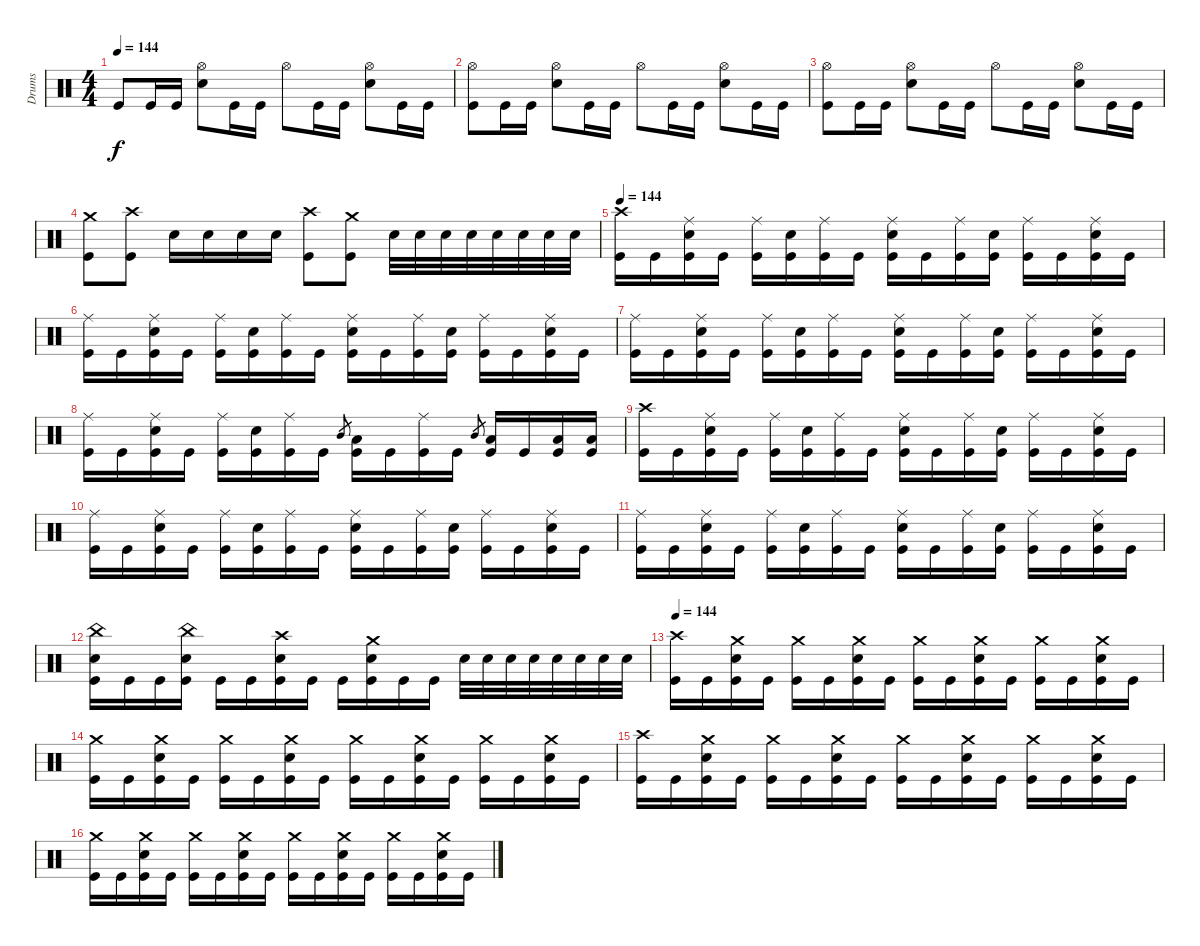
\track ("Drums" "Drums") {instrument percussion}
\staff {score}
\articulation defaults
\ts (4 4)
\tempo 144
\clef neutral
\ks c "Kick (hit)".8{dy f} "Kick (hit)".16 "Kick (hit)".16
("Hi-Hat (open)" "Electric Snare (hit)").8 "Kick (hit)".16 "Kick (hit)".16 "Hi-Hat (open)".8 "Kick (hit)".16 "Kick (hit)".16 ("Hi-Hat (open)" "Electric Snare (hit)").8 "Kick (hit)".16 "Kick (hit)".16 |
("Hi-Hat (open)" "Kick (hit)").8 "Kick (hit)".16 "Kick (hit)".16 ("Hi-Hat (open)" "Electric Snare (hit)").8 "Kick (hit)".16 "Kick (hit)".16 "Hi-Hat (open)".8 "Kick (hit)".16 "Kick (hit)".16 ("Hi-Hat (open)" "Electric Snare (hit)").8 "Kick (hit)".16 "Kick (hit)".16 |
("Hi-Hat (open)" "Kick (hit)").8 "Kick (hit)".16 "Kick (hit)".16 ("Hi-Hat (open)" "Electric Snare (hit)").8 "Kick (hit)".16 "Kick (hit)".16 "Hi-Hat (open)".8 "Kick (hit)".16 "Kick (hit)".16 ("Hi-Hat (open)" "Electric Snare (hit)").8 "Kick (hit)".16 "Kick (hit)".16 |
("Crash medium (hit)" "Kick (hit)").8 ("Crash high (hit)" "Kick (hit)").8 "Electric Snare (hit)".16 "Electric Snare (hit)".16 "Electric Snare (hit)".16 "Electric Snare (hit)".16 ("Crash high (hit)" "Kick (hit)").8 ("Crash medium (hit)" "Kick (hit)").8 "Electric Snare (hit)".32 "Electric Snare (hit)".32 "Electric Snare (hit)".32 "Electric Snare (hit)".32 "Electric Snare (hit)".32 "Electric Snare (hit)".32 "Electric Snare (hit)".32 "Electric Snare (hit)".32 |
\tempo 144
("Crash high (hit)" "Kick (hit)").16 "Kick (hit)".16 ("Ride (middle)" "Electric Snare (hit)" "Kick (hit)").16 "Kick (hit)".16 ("Ride (middle)" "Kick (hit)").16 ("Electric Snare (hit)" "Kick (hit)").16 ("Ride (middle)" "Kick (hit)").16 "Kick (hit)".16 ("Ride (middle)" "Electric Snare (hit)" "Kick (hit)").16 "Kick (hit)".16 ("Ride (middle)" "Kick (hit)").16 ("Electric Snare (hit)" "Kick (hit)").16 ("Ride (middle)" "Kick (hit)").16 "Kick (hit)".16 ("Ride (middle)" "Electric Snare (hit)" "Kick (hit)").16 "Kick (hit)".16 |
("Ride (middle)" "Kick (hit)").16 "Kick (hit)".16 ("Ride (middle)" "Electric Snare (hit)" "Kick (hit)").16 "Kick (hit)".16 ("Ride (middle)" "Kick (hit)").16 ("Electric Snare (hit)" "Kick (hit)").16 ("Ride (middle)" "Kick (hit)").16 "Kick (hit)".16 ("Ride (middle)" "Electric Snare (hit)" "Kick (hit)").16 "Kick (hit)".16 ("Ride (middle)" "Kick (hit)").16 ("Electric Snare (hit)" "Kick (hit)").16 ("Ride (middle)" "Kick (hit)").16 "Kick (hit)".16 ("Ride (middle)" "Electric Snare (hit)" "Kick (hit)").16 "Kick (hit)".16 |
("Ride (middle)" "Kick (hit)").16 "Kick (hit)".16 ("Ride (middle)" "Electric Snare (hit)" "Kick (hit)").16 "Kick (hit)".16 ("Ride (middle)" "Kick (hit)").16 ("Electric Snare (hit)" "Kick (hit)").16 ("Ride (middle)" "Kick (hit)").16 "Kick (hit)".16 ("Ride (middle)" "Electric Snare (hit)" "Kick (hit)").16 "Kick (hit)".16 ("Ride (middle)" "Kick (hit)").16 ("Electric Snare (hit)" "Kick (hit)").16 ("Ride (middle)" "Kick (hit)").16 "Kick (hit)".16 ("Ride (middle)" "Electric Snare (hit)" "Kick (hit)").16 "Kick (hit)".16 |
("Ride (middle)" "Kick (hit)").16 "Kick (hit)".16 ("Ride (middle)" "Electric Snare (hit)" "Kick (hit)").16 "Kick (hit)".16 ("Ride (middle)" "Kick (hit)").16 ("Electric Snare (hit)" "Kick (hit)").16 ("Ride (middle)" "Kick (hit)").16 "Kick (hit)".16 "Mid Tom (hit)".8{gr} ("Low Tom (hit)" "Kick (hit)").16 "Kick (hit)".16 ("Ride (middle)" "Kick (hit)").16 "Kick (hit)".16 "Mid Tom (hit)".8{gr} ("Low Tom (hit)" "Kick (hit)").16 "Kick (hit)".16 ("Low Tom (hit)" "Kick (hit)").16 ("Low Tom (hit)" "Kick (hit)").16 |
("Crash high (hit)" "Kick (hit)").16 "Kick (hit)".16 ("Ride (middle)" "Electric Snare (hit)" "Kick (hit)").16 "Kick (hit)".16 ("Ride (middle)" "Kick (hit)").16 ("Electric Snare (hit)" "Kick (hit)").16 ("Ride (middle)" "Kick (hit)").16 "Kick (hit)".16 ("Ride (middle)" "Electric Snare (hit)" "Kick (hit)").16 "Kick (hit)".16 ("Ride (middle)" "Kick (hit)").16 ("Electric Snare (hit)" "Kick (hit)").16 ("Ride (middle)" "Kick (hit)").16 "Kick (hit)".16 ("Ride (middle)" "Electric Snare (hit)" "Kick (hit)").16 "Kick (hit)".16 |
("Ride (middle)" "Kick (hit)").16 "Kick (hit)".16 ("Ride (middle)" "Electric Snare (hit)" "Kick (hit)").16 "Kick (hit)".16 ("Ride (middle)" "Kick (hit)").16 ("Electric Snare (hit)" "Kick (hit)").16 ("Ride (middle)" "Kick (hit)").16 "Kick (hit)".16 ("Ride (middle)" "Electric Snare (hit)" "Kick (hit)").16 "Kick (hit)".16 ("Ride (middle)" "Kick (hit)").16 ("Electric Snare (hit)" "Kick (hit)").16 ("Ride (middle)" "Kick (hit)").16 "Kick (hit)".16 ("Ride (middle)" "Electric Snare (hit)" "Kick (hit)").16 "Kick (hit)".16 |
("Ride (middle)" "Kick (hit)").16 "Kick (hit)".16 ("Ride (middle)" "Electric Snare (hit)" "Kick (hit)").16 "Kick (hit)".16 ("Ride (middle)" "Kick (hit)").16 ("Electric Snare (hit)" "Kick (hit)").16 ("Ride (middle)" "Kick (hit)").16 "Kick (hit)".16 ("Ride (middle)" "Electric Snare (hit)" "Kick (hit)").16 "Kick (hit)".16 ("Ride (middle)" "Kick (hit)").16 ("Electric Snare (hit)" "Kick (hit)").16 ("Ride (middle)" "Kick (hit)").16 "Kick (hit)".16 ("Ride (middle)" "Electric Snare (hit)" "Kick (hit)").16 "Kick (hit)".16 |
("China (hit)" "Electric Snare (hit)" "Kick (hit)").16 "Kick (hit)".16 "Kick (hit)".16 ("China (hit)" "Electric Snare (hit)" "Kick (hit)").16 "Kick (hit)".16 "Kick (hit)".16 ("Crash high (hit)" "Electric Snare (hit)" "Kick (hit)").16 "Kick (hit)".16 "Kick (hit)".16 ("Crash medium (hit)" "Electric Snare (hit)" "Kick (hit)").16 "Kick (hit)".16 "Kick (hit)".16 "Electric Snare (hit)".32 "Electric Snare (hit)".32 "Electric Snare (hit)".32 "Electric Snare (hit)".32 "Electric Snare (hit)".32 "Electric Snare (hit)".32 "Electric Snare (hit)".32 "Electric Snare (hit)".32 |
\tempo 144
("Crash high (hit)" "Kick (hit)").16 "Kick (hit)".16 ("Crash medium (hit)" "Electric Snare (hit)" "Kick (hit)").16 "Kick (hit)".16 ("Crash medium (hit)" "Kick (hit)").16 "Kick (hit)".16 ("Crash medium (hit)" "Electric Snare (hit)" "Kick (hit)").16 "Kick (hit)".16 ("Crash medium (hit)" "Kick (hit)").16 "Kick (hit)".16 ("Crash medium (hit)" "Electric Snare (hit)" "Kick (hit)").16 "Kick (hit)".16 ("Crash medium (hit)" "Kick (hit)").16 "Kick (hit)".16 ("Crash medium (hit)" "Electric Snare (hit)" "Kick (hit)").16 "Kick (hit)".16 |
("Crash medium (hit)" "Kick (hit)").16 "Kick (hit)".16 ("Crash medium (hit)" "Electric Snare (hit)" "Kick (hit)").16 "Kick (hit)".16 ("Crash medium (hit)" "Kick (hit)").16 "Kick (hit)".16 ("Crash medium (hit)" "Electric Snare (hit)" "Kick (hit)").16 "Kick (hit)".16 ("Crash medium (hit)" "Kick (hit)").16 "Kick (hit)".16 ("Crash medium (hit)" "Electric Snare (hit)" "Kick (hit)").16 "Kick (hit)".16 ("Crash medium (hit)" "Kick (hit)").16 "Kick (hit)".16 ("Crash medium (hit)" "Electric Snare (hit)" "Kick (hit)").16 "Kick (hit)".16 |
("Crash high (hit)" "Kick (hit)").16 "Kick (hit)".16 ("Crash medium (hit)" "Electric Snare (hit)" "Kick (hit)").16 "Kick (hit)".16 ("Crash medium (hit)" "Kick (hit)").16 "Kick (hit)".16 ("Crash medium (hit)" "Electric Snare (hit)" "Kick (hit)").16 "Kick (hit)".16 ("Crash medium (hit)" "Kick (hit)").16 "Kick (hit)".16 ("Crash medium (hit)" "Electric Snare (hit)" "Kick (hit)").16 "Kick (hit)".16 ("Crash medium (hit)" "Kick (hit)").16 "Kick (hit)".16 ("Crash medium (hit)" "Electric Snare (hit)" "Kick (hit)").16 "Kick (hit)".16 |
("Crash medium (hit)" "Kick (hit)").16 "Kick (hit)".16 ("Crash medium (hit)" "Electric Snare (hit)" "Kick (hit)").16 "Kick (hit)".16 ("Crash medium (hit)" "Kick (hit)").16 "Kick (hit)".16 ("Crash medium (hit)" "Electric Snare (hit)" "Kick (hit)").16 "Kick (hit)".16 ("Crash medium (hit)" "Kick (hit)").16 "Kick (hit)".16 ("Crash medium (hit)" "Electric Snare (hit)" "Kick (hit)").16 "Kick (hit)".16 ("Crash medium (hit)" "Kick (hit)").16 "Kick (hit)".16 ("Crash medium (hit)" "Electric Snare (hit)" "Kick (hit)").16 "Kick (hit)".16
